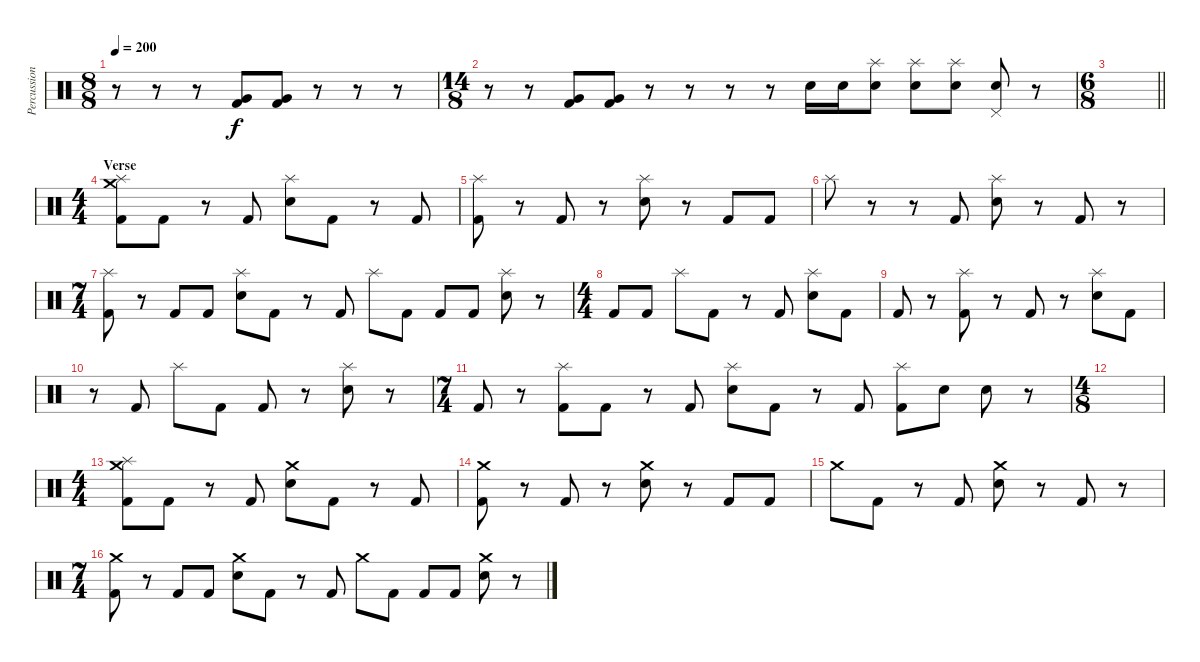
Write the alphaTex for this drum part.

\track ("Percussions" "Percussion") {instrument percussion}
\staff {score}
\articulation defaults
\ts (8 8)
\tempo 200
\clef neutral
\ks c
r.8{dy f} r.8 r.8 ("Very Low Tom (hit)" "Kick (hit) 2").8 ("Very Low Tom (hit)" "Kick (hit) 2").8 r.8 r.8 r.8 |
\ts (14 8)
r.8 r.8 ("Very Low Tom (hit)" "Kick (hit) 2").8 ("Very Low Tom (hit)" "Kick (hit) 2").8 r.8 r.8 r.8 r.8 "Electric Snare (hit)".16 "Electric Snare (hit)".16 ("Splash (hit)" "Electric Snare (hit)").8 ("Splash (hit)" "Electric Snare (hit)").8 ("Splash (hit)" "Electric Snare (hit)").8 ("Pedal Hi-Hat (hit)" "Electric Snare (hit)").8 r.8 |
\ts (6 8)
\barLineRight lightlight
|
\ts (4 4)
\section ("" "Verse")
("Crash medium (hit)" "Splash (hit)" "Kick (hit) 2").8 "Kick (hit) 2".8 r.8 "Kick (hit) 2".8 ("Splash (hit)" "Electric Snare (hit)").8 "Kick (hit) 2".8 r.8 "Kick (hit) 2".8 |
("Splash (hit)" "Kick (hit) 2").8 r.8 "Kick (hit) 2".8 r.8 ("Splash (hit)" "Electric Snare (hit)").8 r.8 "Kick (hit) 2".8 "Kick (hit) 2".8 |
"Splash (hit)".8 r.8 r.8 "Kick (hit) 2".8 ("Splash (hit)" "Electric Snare (hit)").8 r.8 "Kick (hit) 2".8 r.8 |
\ts (7 4)
("Splash (hit)" "Kick (hit) 2").8 r.8 "Kick (hit) 2".8 "Kick (hit) 2".8 ("Splash (hit)" "Electric Snare (hit)").8 "Kick (hit) 2".8 r.8 "Kick (hit) 2".8 "Splash (hit)".8 "Kick (hit) 2".8 "Kick (hit) 2".8 "Kick (hit) 2".8 ("Splash (hit)" "Electric Snare (hit)").8 r.8 |
\ts (4 4)
"Kick (hit) 2".8 "Kick (hit) 2".8 "Splash (hit)".8 "Kick (hit) 2".8 r.8 "Kick (hit) 2".8 ("Splash (hit)" "Electric Snare (hit)").8 "Kick (hit) 2".8 |
"Kick (hit) 2".8 r.8 ("Splash (hit)" "Kick (hit) 2").8 r.8 "Kick (hit) 2".8 r.8 ("Splash (hit)" "Electric Snare (hit)").8 "Kick (hit) 2".8 |
r.8 "Kick (hit) 2".8 "Splash (hit)".8 "Kick (hit) 2".8 "Kick (hit) 2".8 r.8 ("Splash (hit)" "Electric Snare (hit)").8 r.8 |
\ts (7 4)
"Kick (hit) 2".8 r.8 ("Splash (hit)" "Kick (hit) 2").8 "Kick (hit) 2".8 r.8 "Kick (hit) 2".8 ("Splash (hit)" "Electric Snare (hit)").8 "Kick (hit) 2".8 r.8 "Kick (hit) 2".8 ("Splash (hit)" "Kick (hit) 2").8 "Electric Snare (hit)".8 "Electric Snare (hit)".8 r.8 |
\ts (4 8)
|
\ts (4 4)
("Crash medium (hit)" "Splash (hit)" "Kick (hit) 2").8 "Kick (hit) 2".8 r.8 "Kick (hit) 2".8 ("Crash medium (hit)" "Electric Snare (hit)").8 "Kick (hit) 2".8 r.8 "Kick (hit) 2".8 |
("Crash medium (hit)" "Kick (hit) 2").8 r.8 "Kick (hit) 2".8 r.8 ("Crash medium (hit)" "Electric Snare (hit)").8 r.8 "Kick (hit) 2".8 "Kick (hit) 2".8 |
"Crash medium (hit)".8 "Kick (hit) 2".8 r.8 "Kick (hit) 2".8 ("Crash medium (hit)" "Electric Snare (hit)").8 r.8 "Kick (hit) 2".8 r.8 |
\ts (7 4)
("Crash medium (hit)" "Kick (hit) 2").8 r.8 "Kick (hit) 2".8 "Kick (hit) 2".8 ("Crash medium (hit)" "Electric Snare (hit)").8 "Kick (hit) 2".8 r.8 "Kick (hit) 2".8 "Crash medium (hit)".8 "Kick (hit) 2".8 "Kick (hit) 2".8 "Kick (hit) 2".8 ("Crash medium (hit)" "Electric Snare (hit)").8 r.8
